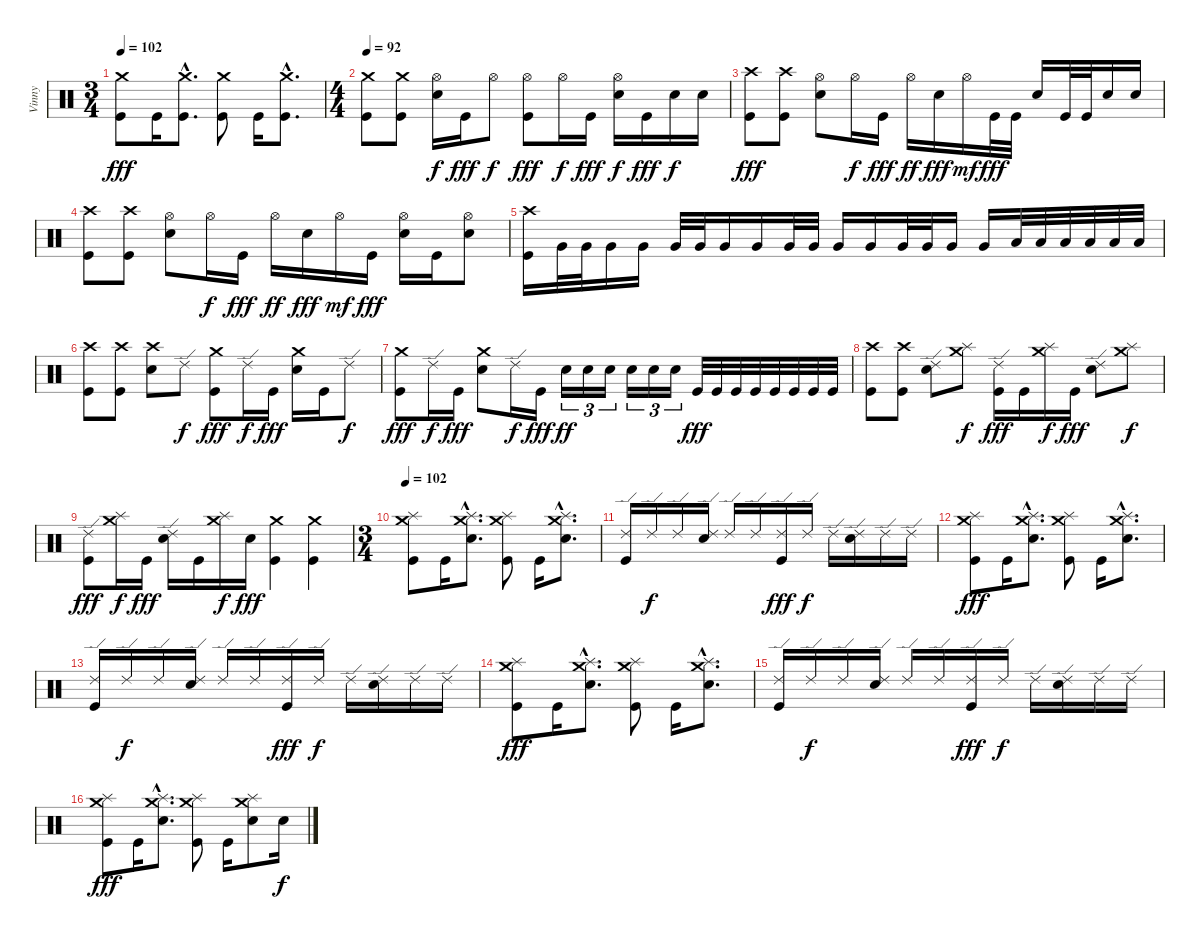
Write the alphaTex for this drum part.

\track ("Vinny" "Vinny") {instrument percussion}
\staff {score}
\articulation defaults
\ts (3 4)
\tempo 102
\clef neutral
\ks c
("Crash medium (hit)" "Kick (hit)").8{dy fff} "Kick (hit)".16 ("Crash medium (hit)"{hac} "Kick (hit)"{hac}).8{d} ("Crash medium (hit)" "Kick (hit)").8 "Kick (hit)".16 ("Crash medium (hit)"{hac} "Kick (hit)"{hac}).8{d} |
\ts (4 4)
\section ("" "")
\tempo 92
("Crash medium (hit)" "Kick (hit)").8 ("Crash medium (hit)" "Kick (hit)").8 ("Hi-Hat (open)" "Electric Snare (hit)").16{dy f} "Kick (hit)".16{dy fff} "Hi-Hat (open)".8{dy f} ("Hi-Hat (open)" "Kick (hit)").8{dy fff} "Hi-Hat (open)".16{dy f} "Kick (hit)".16{dy fff} ("Hi-Hat (open)" "Electric Snare (hit)").16{dy f} "Kick (hit)".16{dy fff} "Electric Snare (hit)".16{dy f} "Electric Snare (hit)".16 |
("Crash high (hit)" "Kick (hit)").8{dy fff} ("Crash high (hit)" "Kick (hit)").8 ("Hi-Hat (open)" "Electric Snare (hit)").8 "Hi-Hat (open)".16{dy f} "Kick (hit)".16{dy fff} "Hi-Hat (open)".16{dy ff} "Electric Snare (hit)".16{dy fff} "Hi-Hat (open)".16{dy mf} "Kick (hit)".32{dy fff} "Kick (hit)".32 "Electric Snare (hit)".16 "Kick (hit)".32 "Kick (hit)".32 "Electric Snare (hit)".16 "Electric Snare (hit)".16 |
("Crash high (hit)" "Kick (hit)").8 ("Crash high (hit)" "Kick (hit)").8 ("Hi-Hat (open)" "Electric Snare (hit)").8 "Hi-Hat (open)".16{dy f} "Kick (hit)".16{dy fff} "Hi-Hat (open)".16{dy ff} "Electric Snare (hit)".16{dy fff} "Hi-Hat (open)".16{dy mf} "Kick (hit)".16{dy fff} ("Hi-Hat (open)" "Electric Snare (hit)").16 "Kick (hit)".16 ("Hi-Hat (open)" "Electric Snare (hit)").8 |
("Crash high (hit)" "Kick (hit)").16 "Very Low Tom (hit)".32 "Very Low Tom (hit)".32 "Very Low Tom (hit)".16 "Very Low Tom (hit)".16 "Very Low Tom (hit)".32 "Very Low Tom (hit)".32 "Very Low Tom (hit)".16 "Very Low Tom (hit)".16 "Very Low Tom (hit)".32 "Very Low Tom (hit)".32 "Very Low Tom (hit)".16 "Very Low Tom (hit)".16 "Very Low Tom (hit)".32 "Very Low Tom (hit)".32 "Very Low Tom (hit)".16 "Very Low Tom (hit)".16 "Low Floor Tom (hit)".32 "Low Floor Tom (hit)".32 "Low Floor Tom (hit)".32 "Low Floor Tom (hit)".32 "Low Floor Tom (hit)".32 "Low Floor Tom (hit)".32 |
\section ("" "")
("Crash high (hit)" "Kick (hit)").8 ("Crash high (hit)" "Kick (hit)").8 ("Crash high (hit)" "Electric Snare (hit)").8 "Ride (edge) 2".8{dy f} ("Crash medium (hit)" "Kick (hit)").8{dy fff} "Ride (edge) 2".16{dy f} "Kick (hit)".16{dy fff} ("Crash medium (hit)" "Electric Snare (hit)").16 "Kick (hit)".16 "Ride (edge) 2".8{dy f} |
("Crash medium (hit)" "Kick (hit)").8{dy fff} "Ride (edge) 2".16{dy f} "Kick (hit)".16{dy fff} ("Crash medium (hit)" "Electric Snare (hit)").8 "Ride (edge) 2".16{dy f} "Kick (hit)".16{dy fff} "Electric Snare (hit)".16{tu (3 2) dy ff} "Electric Snare (hit)".16{tu (3 2)} "Electric Snare (hit)".16{tu (3 2)} "Electric Snare (hit)".16{tu (3 2)} "Electric Snare (hit)".16{tu (3 2)} "Electric Snare (hit)".16{tu (3 2)} "Kick (hit)".32{dy fff} "Kick (hit)".32 "Kick (hit)".32 "Kick (hit)".32 "Kick (hit)".32 "Kick (hit)".32 "Kick (hit)".32 "Kick (hit)".32 |
("Crash high (hit)" "Kick (hit)").8 ("Crash high (hit)" "Kick (hit)").8 ("Ride (edge) 2" "Electric Snare (hit)").8 ("Crash medium (hit)" "Splash (hit)").8{dy f} ("Ride (edge) 2" "Kick (hit)").16{dy fff} "Kick (hit)".16 ("Crash medium (hit)" "Splash (hit)").16{dy f} "Kick (hit)".16{dy fff} ("Ride (edge) 2" "Electric Snare (hit)").8 ("Crash medium (hit)" "Splash (hit)").8{dy f} |
("Ride (edge) 2" "Kick (hit)").8{dy fff} ("Crash medium (hit)" "Splash (hit)").16{dy f} "Kick (hit)".16{dy fff} ("Ride (edge) 2" "Electric Snare (hit)").16 "Kick (hit)".16 ("Crash medium (hit)" "Splash (hit)").16{dy f} "Electric Snare (hit)".16{dy fff} ("Crash medium (hit)" "Kick (hit)").4 ("Crash medium (hit)" "Kick (hit)").4 |
\ts (3 4)
\section ("" "")
\tempo 102
("Crash medium (hit)" "Splash (hit)" "Kick (hit)").8 "Kick (hit)".16 ("Crash medium (hit)"{hac} "Splash (hit)"{hac} "Electric Snare (hit)").8{d} ("Crash medium (hit)" "Splash (hit)" "Kick (hit)").8 "Kick (hit)".16 ("Crash medium (hit)"{hac} "Splash (hit)"{hac} "Electric Snare (hit)").8{d} |
("Ride (edge) 2" "Kick (hit)").16 "Ride (edge) 2".16{dy f} "Ride (edge) 2".16 ("Ride (edge) 2" "Electric Snare (hit)").16 "Ride (edge) 2".16 "Ride (edge) 2".16 ("Ride (edge) 2" "Kick (hit)").16{dy fff} "Ride (edge) 2".16{dy f} "Ride (edge) 2".16 ("Ride (edge) 2" "Electric Snare (hit)").16 "Ride (edge) 2".16 "Ride (edge) 2".16 |
("Crash medium (hit)" "Splash (hit)" "Kick (hit)").8{dy fff} "Kick (hit)".16 ("Crash medium (hit)"{hac} "Splash (hit)"{hac} "Electric Snare (hit)").8{d} ("Crash medium (hit)" "Splash (hit)" "Kick (hit)").8 "Kick (hit)".16 ("Crash medium (hit)"{hac} "Splash (hit)"{hac} "Electric Snare (hit)").8{d} |
("Ride (edge) 2" "Kick (hit)").16 "Ride (edge) 2".16{dy f} "Ride (edge) 2".16 ("Ride (edge) 2" "Electric Snare (hit)").16 "Ride (edge) 2".16 "Ride (edge) 2".16 ("Ride (edge) 2" "Kick (hit)").16{dy fff} "Ride (edge) 2".16{dy f} "Ride (edge) 2".16 ("Ride (edge) 2" "Electric Snare (hit)").16 "Ride (edge) 2".16 "Ride (edge) 2".16 |
("Crash medium (hit)" "Splash (hit)" "Kick (hit)").8{dy fff} "Kick (hit)".16 ("Crash medium (hit)"{hac} "Splash (hit)"{hac} "Electric Snare (hit)").8{d} ("Crash medium (hit)" "Splash (hit)" "Kick (hit)").8 "Kick (hit)".16 ("Crash medium (hit)"{hac} "Splash (hit)"{hac} "Electric Snare (hit)").8{d} |
("Ride (edge) 2" "Kick (hit)").16 "Ride (edge) 2".16{dy f} "Ride (edge) 2".16 ("Ride (edge) 2" "Electric Snare (hit)").16 "Ride (edge) 2".16 "Ride (edge) 2".16 ("Ride (edge) 2" "Kick (hit)").16{dy fff} "Ride (edge) 2".16{dy f} "Ride (edge) 2".16 ("Ride (edge) 2" "Electric Snare (hit)").16 "Ride (edge) 2".16 "Ride (edge) 2".16 |
("Crash medium (hit)" "Splash (hit)" "Kick (hit)").8{dy fff} "Kick (hit)".16 ("Crash medium (hit)"{hac} "Splash (hit)"{hac} "Electric Snare (hit)").8{d} ("Crash medium (hit)" "Splash (hit)" "Kick (hit)").8 "Kick (hit)".16 ("Crash medium (hit)" "Splash (hit)" "Electric Snare (hit)").8 "Electric Snare (hit)".16{dy f}
